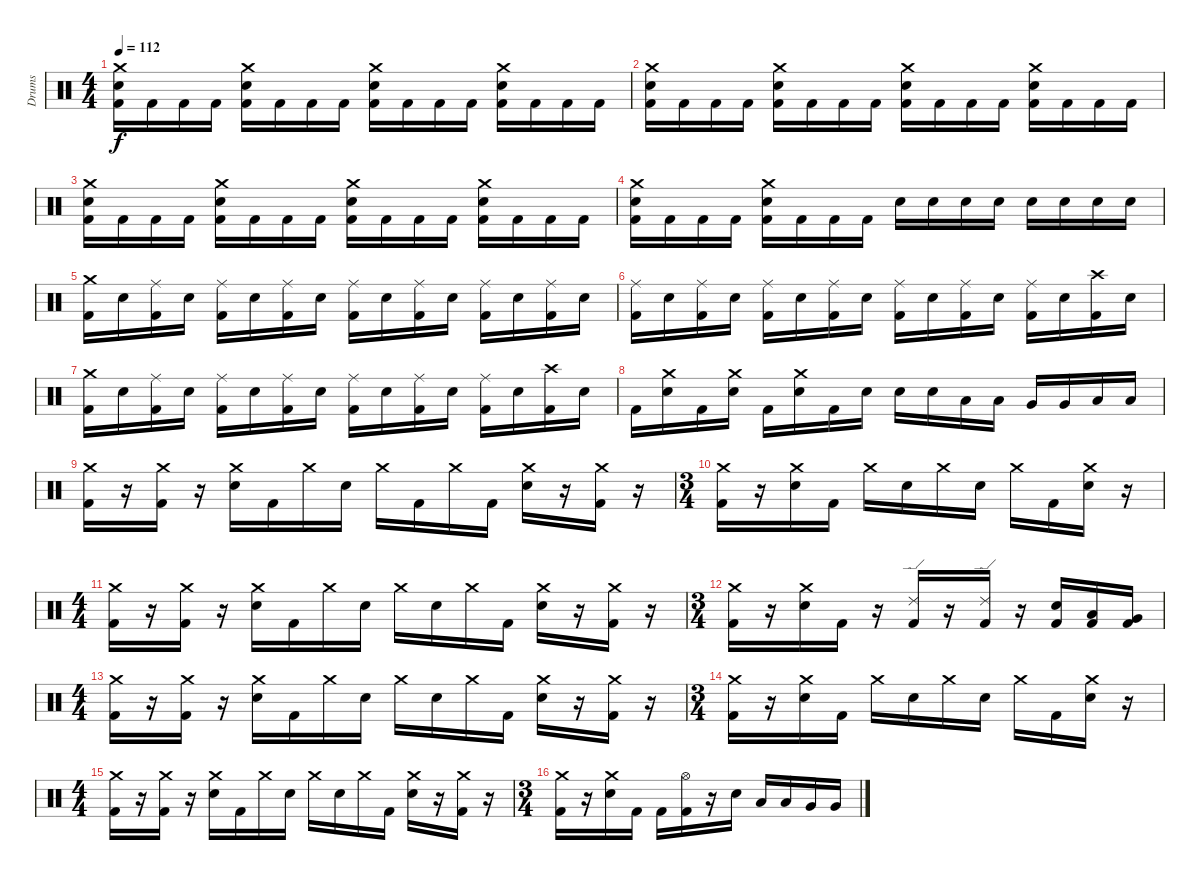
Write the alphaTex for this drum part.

\track ("Drums" "Drums") {instrument percussion}
\staff {score}
\articulation defaults
\ts (4 4)
\section ("" "")
\tempo 112
\clef neutral
\ks c
("Crash medium (hit)" "Electric Snare (hit)" "Kick (hit) 2").16{dy f} "Kick (hit) 2".16 "Kick (hit) 2".16 "Kick (hit) 2".16 ("Crash medium (hit)" "Electric Snare (hit)" "Kick (hit) 2").16 "Kick (hit) 2".16 "Kick (hit) 2".16 "Kick (hit) 2".16 ("Crash medium (hit)" "Electric Snare (hit)" "Kick (hit) 2").16 "Kick (hit) 2".16 "Kick (hit) 2".16 "Kick (hit) 2".16 ("Crash medium (hit)" "Electric Snare (hit)" "Kick (hit) 2").16 "Kick (hit) 2".16 "Kick (hit) 2".16 "Kick (hit) 2".16 |
("Crash medium (hit)" "Electric Snare (hit)" "Kick (hit) 2").16 "Kick (hit) 2".16 "Kick (hit) 2".16 "Kick (hit) 2".16 ("Crash medium (hit)" "Electric Snare (hit)" "Kick (hit) 2").16 "Kick (hit) 2".16 "Kick (hit) 2".16 "Kick (hit) 2".16 ("Crash medium (hit)" "Electric Snare (hit)" "Kick (hit) 2").16 "Kick (hit) 2".16 "Kick (hit) 2".16 "Kick (hit) 2".16 ("Crash medium (hit)" "Electric Snare (hit)" "Kick (hit) 2").16 "Kick (hit) 2".16 "Kick (hit) 2".16 "Kick (hit) 2".16 |
("Crash medium (hit)" "Electric Snare (hit)" "Kick (hit) 2").16 "Kick (hit) 2".16 "Kick (hit) 2".16 "Kick (hit) 2".16 ("Crash medium (hit)" "Electric Snare (hit)" "Kick (hit) 2").16 "Kick (hit) 2".16 "Kick (hit) 2".16 "Kick (hit) 2".16 ("Crash medium (hit)" "Electric Snare (hit)" "Kick (hit) 2").16 "Kick (hit) 2".16 "Kick (hit) 2".16 "Kick (hit) 2".16 ("Crash medium (hit)" "Electric Snare (hit)" "Kick (hit) 2").16 "Kick (hit) 2".16 "Kick (hit) 2".16 "Kick (hit) 2".16 |
("Crash medium (hit)" "Electric Snare (hit)" "Kick (hit) 2").16 "Kick (hit) 2".16 "Kick (hit) 2".16 "Kick (hit) 2".16 ("Crash medium (hit)" "Electric Snare (hit)" "Kick (hit) 2").16 "Kick (hit) 2".16 "Kick (hit) 2".16 "Kick (hit) 2".16 "Electric Snare (hit)".16 "Electric Snare (hit)".16 "Electric Snare (hit)".16 "Electric Snare (hit)".16 "Electric Snare (hit)".16 "Electric Snare (hit)".16 "Electric Snare (hit)".16 "Electric Snare (hit)".16 |
\section ("" "")
("Crash medium (hit)" "Kick (hit) 2").16 "Electric Snare (hit)".16 ("Ride (middle)" "Kick (hit) 2").16 "Electric Snare (hit)".16 ("Ride (middle)" "Kick (hit) 2").16 "Electric Snare (hit)".16 ("Ride (middle)" "Kick (hit) 2").16 "Electric Snare (hit)".16 ("Ride (middle)" "Kick (hit) 2").16 "Electric Snare (hit)".16 ("Ride (middle)" "Kick (hit) 2").16 "Electric Snare (hit)".16 ("Ride (middle)" "Kick (hit) 2").16 "Electric Snare (hit)".16 ("Ride (middle)" "Kick (hit) 2").16 "Electric Snare (hit)".16 |
("Ride (middle)" "Kick (hit) 2").16 "Electric Snare (hit)".16 ("Ride (middle)" "Kick (hit) 2").16 "Electric Snare (hit)".16 ("Ride (middle)" "Kick (hit) 2").16 "Electric Snare (hit)".16 ("Ride (middle)" "Kick (hit) 2").16 "Electric Snare (hit)".16 ("Ride (middle)" "Kick (hit) 2").16 "Electric Snare (hit)".16 ("Ride (middle)" "Kick (hit) 2").16 "Electric Snare (hit)".16 ("Ride (middle)" "Kick (hit) 2").16 "Electric Snare (hit)".16 ("Crash high (hit)" "Kick (hit) 2").16 "Electric Snare (hit)".16 |
("Crash medium (hit)" "Kick (hit) 2").16 "Electric Snare (hit)".16 ("Ride (middle)" "Kick (hit) 2").16 "Electric Snare (hit)".16 ("Ride (middle)" "Kick (hit) 2").16 "Electric Snare (hit)".16 ("Ride (middle)" "Kick (hit) 2").16 "Electric Snare (hit)".16 ("Ride (middle)" "Kick (hit) 2").16 "Electric Snare (hit)".16 ("Ride (middle)" "Kick (hit) 2").16 "Electric Snare (hit)".16 ("Ride (middle)" "Kick (hit) 2").16 "Electric Snare (hit)".16 ("Crash high (hit)" "Kick (hit) 2").16 "Electric Snare (hit)".16 |
"Kick (hit) 2".16 ("Crash medium (hit)" "Electric Snare (hit)").16 "Kick (hit) 2".16 ("Crash medium (hit)" "Electric Snare (hit)").16 "Kick (hit) 2".16 ("Crash medium (hit)" "Electric Snare (hit)").16 "Kick (hit) 2".16 "Electric Snare (hit)".16 "Electric Snare (hit)".16 "Electric Snare (hit)".16 "Low Tom (hit)".16 "Low Tom (hit)".16 "Very Low Tom (hit)".16 "Very Low Tom (hit)".16 "Low Floor Tom (hit)".16 "Low Floor Tom (hit)".16 |
\section ("" "")
("Crash medium (hit)" "Kick (hit) 2").16 r.16 ("Crash medium (hit)" "Kick (hit) 2").16 r.16 ("Crash medium (hit)" "Electric Snare (hit)").16 "Kick (hit) 2".16 "Crash medium (hit)".16 "Electric Snare (hit)".16 "Crash medium (hit)".16 "Kick (hit) 2".16 "Crash medium (hit)".16 "Kick (hit) 2".16 ("Crash medium (hit)" "Electric Snare (hit)").16 r.16 ("Crash medium (hit)" "Kick (hit) 2").16 r.16 |
\ts (3 4)
("Crash medium (hit)" "Kick (hit) 2").16 r.16 ("Crash medium (hit)" "Electric Snare (hit)").16 "Kick (hit) 2".16 "Crash medium (hit)".16 "Electric Snare (hit)".16 "Crash medium (hit)".16 "Electric Snare (hit)".16 "Crash medium (hit)".16 "Kick (hit) 2".16 ("Crash medium (hit)" "Electric Snare (hit)").16 r.16 |
\ts (4 4)
("Crash medium (hit)" "Kick (hit) 2").16 r.16 ("Crash medium (hit)" "Kick (hit) 2").16 r.16 ("Crash medium (hit)" "Electric Snare (hit)").16 "Kick (hit) 2".16 "Crash medium (hit)".16 "Electric Snare (hit)".16 "Crash medium (hit)".16 "Electric Snare (hit)".16 "Crash medium (hit)".16 "Kick (hit) 2".16 ("Crash medium (hit)" "Electric Snare (hit)").16 r.16 ("Crash medium (hit)" "Kick (hit) 2").16 r.16 |
\ts (3 4)
("Crash medium (hit)" "Kick (hit) 2").16 r.16 ("Crash medium (hit)" "Electric Snare (hit)").16 "Kick (hit) 2".16 r.16 ("Ride (edge) 2" "Kick (hit) 2").16 r.16 ("Ride (edge) 2" "Kick (hit) 2").16 r.16 ("Electric Snare (hit)" "Kick (hit) 2").16 ("Low Tom (hit)" "Kick (hit) 2").16 ("Very Low Tom (hit)" "Kick (hit) 2").16 |
\ts (4 4)
("Crash medium (hit)" "Kick (hit) 2").16 r.16 ("Crash medium (hit)" "Kick (hit) 2").16 r.16 ("Crash medium (hit)" "Electric Snare (hit)").16 "Kick (hit) 2".16 "Crash medium (hit)".16 "Electric Snare (hit)".16 "Crash medium (hit)".16 "Electric Snare (hit)".16 "Crash medium (hit)".16 "Kick (hit) 2".16 ("Crash medium (hit)" "Electric Snare (hit)").16 r.16 ("Crash medium (hit)" "Kick (hit) 2").16 r.16 |
\ts (3 4)
("Crash medium (hit)" "Kick (hit) 2").16 r.16 ("Crash medium (hit)" "Electric Snare (hit)").16 "Kick (hit) 2".16 "Crash medium (hit)".16 "Electric Snare (hit)".16 "Crash medium (hit)".16 "Electric Snare (hit)".16 "Crash medium (hit)".16 "Kick (hit) 2".16 ("Crash medium (hit)" "Electric Snare (hit)").16 r.16 |
\ts (4 4)
("Crash medium (hit)" "Kick (hit) 2").16 r.16 ("Crash medium (hit)" "Kick (hit) 2").16 r.16 ("Crash medium (hit)" "Electric Snare (hit)").16 "Kick (hit) 2".16 "Crash medium (hit)".16 "Electric Snare (hit)".16 "Crash medium (hit)".16 "Electric Snare (hit)".16 "Crash medium (hit)".16 "Kick (hit) 2".16 ("Crash medium (hit)" "Electric Snare (hit)").16 r.16 ("Crash medium (hit)" "Kick (hit) 2").16 r.16 |
\ts (3 4)
("Crash medium (hit)" "Kick (hit) 2").16 r.16 ("Crash medium (hit)" "Electric Snare (hit)").16 "Kick (hit) 2".16 "Kick (hit) 2".16 ("Hi-Hat (open)" "Kick (hit) 2").16 r.16 "Electric Snare (hit)".16 "Low Tom (hit)".16 "Low Tom (hit)".16 "Very Low Tom (hit)".16 "Very Low Tom (hit)".16
